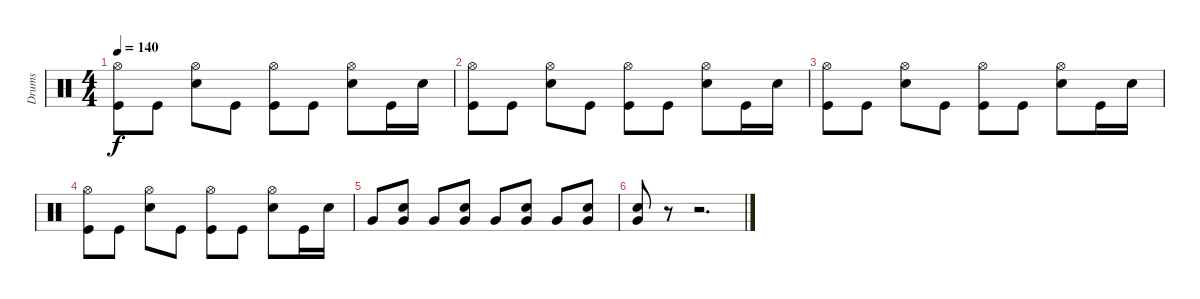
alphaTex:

\track ("Drums" "Drums") {instrument percussion}
\staff {score}
\articulation defaults
\ts (4 4)
\tempo 140
\clef neutral
\ks c
("Hi-Hat (open)" "Kick (hit)").8{dy f} "Kick (hit)".8 ("Hi-Hat (open)" "Snare (hit) 2").8 "Kick (hit)".8 ("Hi-Hat (open)" "Kick (hit)").8 "Kick (hit)".8 ("Hi-Hat (open)" "Snare (hit) 2").8 "Kick (hit)".16 "Snare (hit) 2".16 |
("Hi-Hat (open)" "Kick (hit)").8 "Kick (hit)".8 ("Hi-Hat (open)" "Snare (hit) 2").8 "Kick (hit)".8 ("Hi-Hat (open)" "Kick (hit)").8 "Kick (hit)".8 ("Hi-Hat (open)" "Snare (hit) 2").8 "Kick (hit)".16 "Snare (hit) 2".16 |
("Hi-Hat (open)" "Kick (hit)").8 "Kick (hit)".8 ("Hi-Hat (open)" "Snare (hit) 2").8 "Kick (hit)".8 ("Hi-Hat (open)" "Kick (hit)").8 "Kick (hit)".8 ("Hi-Hat (open)" "Snare (hit) 2").8 "Kick (hit)".16 "Snare (hit) 2".16 |
("Hi-Hat (open)" "Kick (hit)").8 "Kick (hit)".8 ("Hi-Hat (open)" "Snare (hit) 2").8 "Kick (hit)".8 ("Hi-Hat (open)" "Kick (hit)").8 "Kick (hit)".8 ("Hi-Hat (open)" "Snare (hit) 2").8 "Kick (hit)".16 "Snare (hit) 2".16 |
"Very Low Tom (hit)".8 ("Snare (hit) 2" "Very Low Tom (hit)").8 "Very Low Tom (hit)".8 ("Snare (hit) 2" "Very Low Tom (hit)").8 "Very Low Tom (hit)".8 ("Snare (hit) 2" "Very Low Tom (hit)").8 "Very Low Tom (hit)".8 ("Snare (hit) 2" "Very Low Tom (hit)").8 |
("Snare (hit) 2" "Very Low Tom (hit)").8 r.8 r.2{d}
